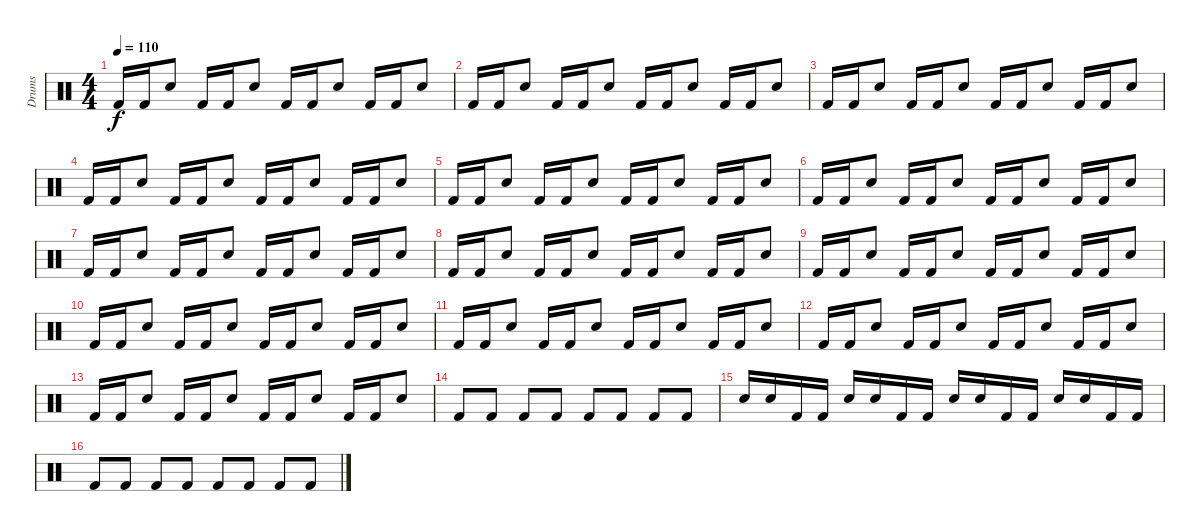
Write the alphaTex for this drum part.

\track ("Drums" "Drums") {instrument percussion}
\staff {score}
\articulation defaults
\ts (4 4)
\tempo 110
\clef neutral
\ks c "Kick (hit) 2".16{dy f} "Kick (hit) 2".16 "Snare (hit) 2".8 "Kick (hit) 2".16 "Kick (hit) 2".16 "Snare (hit) 2".8 "Kick (hit) 2".16 "Kick (hit) 2".16 "Snare (hit) 2".8 "Kick (hit) 2".16 "Kick (hit) 2".16 "Snare (hit) 2".8
|
"Kick (hit) 2".16 "Kick (hit) 2".16 "Snare (hit) 2".8 "Kick (hit) 2".16 "Kick (hit) 2".16 "Snare (hit) 2".8 "Kick (hit) 2".16 "Kick (hit) 2".16 "Snare (hit) 2".8 "Kick (hit) 2".16 "Kick (hit) 2".16 "Snare (hit) 2".8 |
"Kick (hit) 2".16 "Kick (hit) 2".16 "Snare (hit) 2".8 "Kick (hit) 2".16 "Kick (hit) 2".16 "Snare (hit) 2".8 "Kick (hit) 2".16 "Kick (hit) 2".16 "Snare (hit) 2".8 "Kick (hit) 2".16 "Kick (hit) 2".16 "Snare (hit) 2".8 |
"Kick (hit) 2".16 "Kick (hit) 2".16 "Snare (hit) 2".8 "Kick (hit) 2".16 "Kick (hit) 2".16 "Snare (hit) 2".8 "Kick (hit) 2".16 "Kick (hit) 2".16 "Snare (hit) 2".8 "Kick (hit) 2".16 "Kick (hit) 2".16 "Snare (hit) 2".8 |
"Kick (hit) 2".16 "Kick (hit) 2".16 "Snare (hit) 2".8 "Kick (hit) 2".16 "Kick (hit) 2".16 "Snare (hit) 2".8 "Kick (hit) 2".16 "Kick (hit) 2".16 "Snare (hit) 2".8 "Kick (hit) 2".16 "Kick (hit) 2".16 "Snare (hit) 2".8 |
"Kick (hit) 2".16 "Kick (hit) 2".16 "Snare (hit) 2".8 "Kick (hit) 2".16 "Kick (hit) 2".16 "Snare (hit) 2".8 "Kick (hit) 2".16 "Kick (hit) 2".16 "Snare (hit) 2".8 "Kick (hit) 2".16 "Kick (hit) 2".16 "Snare (hit) 2".8 |
"Kick (hit) 2".16 "Kick (hit) 2".16 "Snare (hit) 2".8 "Kick (hit) 2".16 "Kick (hit) 2".16 "Snare (hit) 2".8 "Kick (hit) 2".16 "Kick (hit) 2".16 "Snare (hit) 2".8 "Kick (hit) 2".16 "Kick (hit) 2".16 "Snare (hit) 2".8 |
"Kick (hit) 2".16 "Kick (hit) 2".16 "Snare (hit) 2".8 "Kick (hit) 2".16 "Kick (hit) 2".16 "Snare (hit) 2".8 "Kick (hit) 2".16 "Kick (hit) 2".16 "Snare (hit) 2".8 "Kick (hit) 2".16 "Kick (hit) 2".16 "Snare (hit) 2".8 |
"Kick (hit) 2".16 "Kick (hit) 2".16 "Snare (hit) 2".8 "Kick (hit) 2".16 "Kick (hit) 2".16 "Snare (hit) 2".8 "Kick (hit) 2".16 "Kick (hit) 2".16 "Snare (hit) 2".8 "Kick (hit) 2".16 "Kick (hit) 2".16 "Snare (hit) 2".8 |
"Kick (hit) 2".16 "Kick (hit) 2".16 "Snare (hit) 2".8 "Kick (hit) 2".16 "Kick (hit) 2".16 "Snare (hit) 2".8 "Kick (hit) 2".16 "Kick (hit) 2".16 "Snare (hit) 2".8 "Kick (hit) 2".16 "Kick (hit) 2".16 "Snare (hit) 2".8 |
"Kick (hit) 2".16 "Kick (hit) 2".16 "Snare (hit) 2".8 "Kick (hit) 2".16 "Kick (hit) 2".16 "Snare (hit) 2".8 "Kick (hit) 2".16 "Kick (hit) 2".16 "Snare (hit) 2".8 "Kick (hit) 2".16 "Kick (hit) 2".16 "Snare (hit) 2".8 |
"Kick (hit) 2".16 "Kick (hit) 2".16 "Snare (hit) 2".8 "Kick (hit) 2".16 "Kick (hit) 2".16 "Snare (hit) 2".8 "Kick (hit) 2".16 "Kick (hit) 2".16 "Snare (hit) 2".8 "Kick (hit) 2".16 "Kick (hit) 2".16 "Snare (hit) 2".8 |
"Kick (hit) 2".16 "Kick (hit) 2".16 "Snare (hit) 2".8 "Kick (hit) 2".16 "Kick (hit) 2".16 "Snare (hit) 2".8 "Kick (hit) 2".16 "Kick (hit) 2".16 "Snare (hit) 2".8 "Kick (hit) 2".16 "Kick (hit) 2".16 "Snare (hit) 2".8 |
"Kick (hit) 2".8 "Kick (hit) 2".8 "Kick (hit) 2".8 "Kick (hit) 2".8 "Kick (hit) 2".8 "Kick (hit) 2".8 "Kick (hit) 2".8 "Kick (hit) 2".8 |
"Snare (hit) 2".16 "Snare (hit) 2".16 "Kick (hit) 2".16 "Kick (hit) 2".16 "Snare (hit) 2".16 "Snare (hit) 2".16 "Kick (hit) 2".16 "Kick (hit) 2".16 "Snare (hit) 2".16 "Snare (hit) 2".16 "Kick (hit) 2".16 "Kick (hit) 2".16 "Snare (hit) 2".16 "Snare (hit) 2".16 "Kick (hit) 2".16 "Kick (hit) 2".16 |
"Kick (hit) 2".8 "Kick (hit) 2".8 "Kick (hit) 2".8 "Kick (hit) 2".8 "Kick (hit) 2".8 "Kick (hit) 2".8 "Kick (hit) 2".8 "Kick (hit) 2".8
